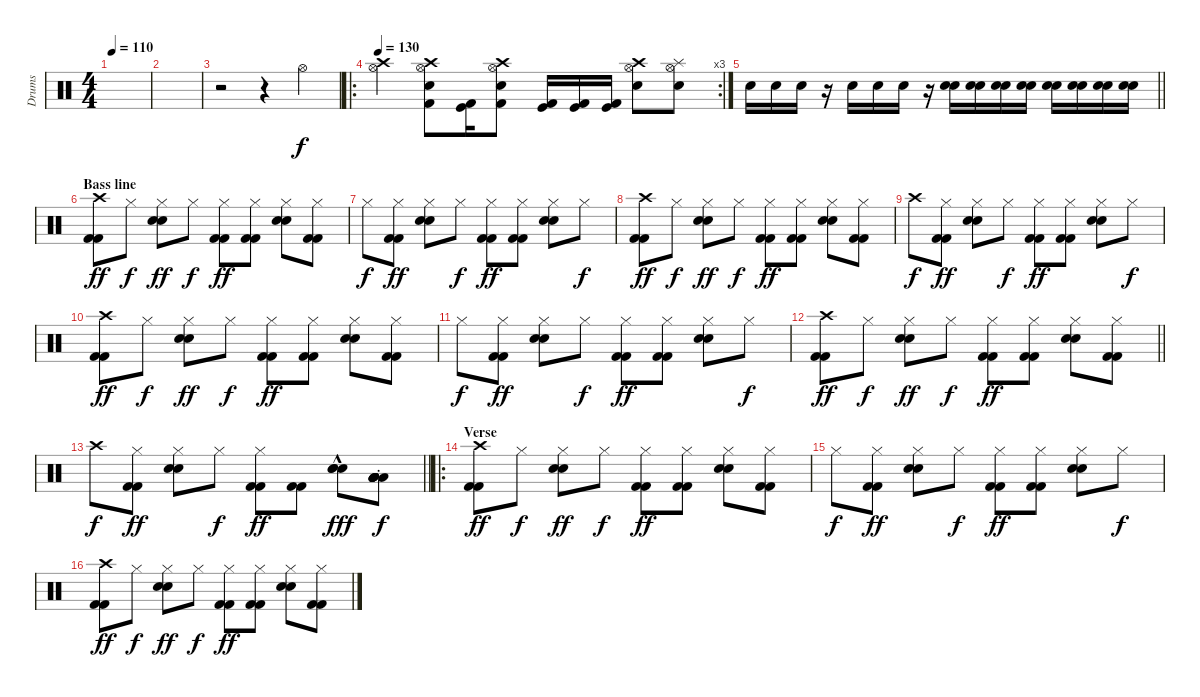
\track ("Drums" "Drums") {instrument percussion}
\staff {score}
\articulation defaults
\ts (4 4)
\tempo 110
\clef neutral
\ks c
|
|
r.2 r.4 "Hi-Hat (open)".4 |
\ro
\rc 3
\tempo 130
("Hi-Hat (open)" "Crash high (hit)").4 ("Crash high (hit)" "Hi-Hat (open)" "Kick (hit) 2" "Electric Snare (hit)").8 ("Kick (hit)" "Kick (hit) 2").16 ("Crash high (hit)" "Hi-Hat (open)" "Kick (hit) 2" "Electric Snare (hit)").8 ("Kick (hit)" "Kick (hit) 2").16 ("Kick (hit)" "Kick (hit) 2").16 ("Kick (hit)" "Kick (hit) 2").16 ("Crash high (hit)" "Hi-Hat (open)" "Electric Snare (hit)").8 ("Splash (hit)" "Hi-Hat (open)" "Snare (hit) 2").8 |
\barLineRight lightlight "Electric Snare (hit)".16 "Electric Snare (hit)".16 "Electric Snare (hit)".16
r.16 "Electric Snare (hit)".16 "Electric Snare (hit)".16 "Electric Snare (hit)".16 r.16 ("Electric Snare (hit)" "Snare (hit) 2").16 ("Electric Snare (hit)" "Snare (hit) 2").16 ("Electric Snare (hit)" "Snare (hit) 2").16 ("Electric Snare (hit)" "Snare (hit) 2").16 ("Electric Snare (hit)" "Snare (hit) 2").16 ("Electric Snare (hit)" "Snare (hit) 2").16 ("Electric Snare (hit)" "Snare (hit) 2").16 ("Electric Snare (hit)" "Snare (hit) 2").16 |
\section ("" "Bass line")
("Kick (hit) 2" "Kick (hit) 2" "Crash high (hit)").8{dy ff} "Hi-Hat (closed)".8{dy f} ("Electric Snare (hit)" "Electric Snare (hit)" "Hi-Hat (closed)").8{dy ff} "Hi-Hat (closed)".8{dy f} ("Kick (hit) 2" "Kick (hit) 2" "Hi-Hat (closed)").8{dy ff} ("Kick (hit) 2" "Kick (hit) 2" "Hi-Hat (closed)").8 ("Electric Snare (hit)" "Electric Snare (hit)" "Hi-Hat (closed)").8 ("Kick (hit) 2" "Kick (hit) 2" "Hi-Hat (closed)").8 |
"Hi-Hat (closed)".8{dy f} ("Kick (hit) 2" "Kick (hit) 2" "Hi-Hat (closed)").8{dy ff} ("Electric Snare (hit)" "Electric Snare (hit)" "Hi-Hat (closed)").8 "Hi-Hat (closed)".8{dy f} ("Kick (hit) 2" "Kick (hit) 2" "Hi-Hat (closed)").8{dy ff} ("Kick (hit) 2" "Kick (hit) 2" "Hi-Hat (closed)").8 ("Electric Snare (hit)" "Electric Snare (hit)" "Hi-Hat (closed)").8 "Hi-Hat (closed)".8{dy f} |
("Kick (hit) 2" "Kick (hit) 2" "Crash high (hit)").8{dy ff} "Hi-Hat (closed)".8{dy f} ("Electric Snare (hit)" "Electric Snare (hit)" "Hi-Hat (closed)").8{dy ff} "Hi-Hat (closed)".8{dy f} ("Kick (hit) 2" "Kick (hit) 2" "Hi-Hat (closed)").8{dy ff} ("Kick (hit) 2" "Kick (hit) 2" "Hi-Hat (closed)").8 ("Electric Snare (hit)" "Electric Snare (hit)" "Hi-Hat (closed)").8 ("Kick (hit) 2" "Kick (hit) 2" "Hi-Hat (closed)").8 |
"Crash high (hit)".8{dy f} ("Kick (hit) 2" "Kick (hit) 2" "Hi-Hat (closed)").8{dy ff} ("Electric Snare (hit)" "Electric Snare (hit)" "Hi-Hat (closed)").8 "Hi-Hat (closed)".8{dy f} ("Kick (hit) 2" "Kick (hit) 2" "Hi-Hat (closed)").8{dy ff} ("Kick (hit) 2" "Kick (hit) 2" "Hi-Hat (closed)").8 ("Electric Snare (hit)" "Electric Snare (hit)" "Hi-Hat (closed)").8 "Hi-Hat (closed)".8{dy f} |
("Kick (hit) 2" "Kick (hit) 2" "Crash high (hit)").8{dy ff} "Hi-Hat (closed)".8{dy f} ("Electric Snare (hit)" "Electric Snare (hit)" "Hi-Hat (closed)").8{dy ff} "Hi-Hat (closed)".8{dy f} ("Kick (hit) 2" "Kick (hit) 2" "Hi-Hat (closed)").8{dy ff} ("Kick (hit) 2" "Kick (hit) 2" "Hi-Hat (closed)").8 ("Electric Snare (hit)" "Electric Snare (hit)" "Hi-Hat (closed)").8 ("Kick (hit) 2" "Kick (hit) 2" "Hi-Hat (closed)").8 |
"Hi-Hat (closed)".8{dy f} ("Kick (hit) 2" "Kick (hit) 2" "Hi-Hat (closed)").8{dy ff} ("Electric Snare (hit)" "Electric Snare (hit)" "Hi-Hat (closed)").8 "Hi-Hat (closed)".8{dy f} ("Kick (hit) 2" "Kick (hit) 2" "Hi-Hat (closed)").8{dy ff} ("Kick (hit) 2" "Kick (hit) 2" "Hi-Hat (closed)").8 ("Electric Snare (hit)" "Electric Snare (hit)" "Hi-Hat (closed)").8 "Hi-Hat (closed)".8{dy f} |
\barLineRight lightlight
("Kick (hit) 2" "Kick (hit) 2" "Crash high (hit)").8{dy ff} "Hi-Hat (closed)".8{dy f} ("Electric Snare (hit)" "Electric Snare (hit)" "Hi-Hat (closed)").8{dy ff} "Hi-Hat (closed)".8{dy f} ("Kick (hit) 2" "Kick (hit) 2" "Hi-Hat (closed)").8{dy ff} ("Kick (hit) 2" "Kick (hit) 2" "Hi-Hat (closed)").8 ("Electric Snare (hit)" "Electric Snare (hit)" "Hi-Hat (closed)").8 ("Kick (hit) 2" "Kick (hit) 2" "Hi-Hat (closed)").8 |
\section ("" "")
\barLineRight lightlight "Crash high (hit)".8{dy f}
("Kick (hit) 2" "Kick (hit) 2" "Hi-Hat (closed)").8{dy ff} ("Electric Snare (hit)" "Electric Snare (hit)" "Hi-Hat (closed)").8 "Hi-Hat (closed)".8{dy f} ("Kick (hit) 2" "Kick (hit) 2" "Hi-Hat (closed)").8{dy ff} ("Kick (hit) 2" "Kick (hit) 2").8 ("Snare (hit) 2" "Snare (hit) 2"{hac} "Snare (hit) 2").8{dy fff} ("Low Tom (hit)" "Low Tom (hit)"{st} "Low Tom (hit)" "Low Tom (hit)" "Low Tom (hit)" "Low Tom (hit)").8{dy f} |
\ro
\section ("" "Verse")
("Kick (hit) 2" "Kick (hit) 2" "Crash high (hit)").8{dy ff} "Hi-Hat (closed)".8{dy f} ("Electric Snare (hit)" "Electric Snare (hit)" "Hi-Hat (closed)").8{dy ff} "Hi-Hat (closed)".8{dy f} ("Kick (hit) 2" "Kick (hit) 2" "Hi-Hat (closed)").8{dy ff} ("Kick (hit) 2" "Kick (hit) 2" "Hi-Hat (closed)").8 ("Electric Snare (hit)" "Electric Snare (hit)" "Hi-Hat (closed)").8 ("Kick (hit) 2" "Kick (hit) 2" "Hi-Hat (closed)").8 |
"Hi-Hat (closed)".8{dy f} ("Kick (hit) 2" "Kick (hit) 2" "Hi-Hat (closed)").8{dy ff} ("Electric Snare (hit)" "Electric Snare (hit)" "Hi-Hat (closed)").8 "Hi-Hat (closed)".8{dy f} ("Kick (hit) 2" "Kick (hit) 2" "Hi-Hat (closed)").8{dy ff} ("Kick (hit) 2" "Kick (hit) 2" "Hi-Hat (closed)").8 ("Electric Snare (hit)" "Electric Snare (hit)" "Hi-Hat (closed)").8 "Hi-Hat (closed)".8{dy f} |
("Kick (hit) 2" "Kick (hit) 2" "Crash high (hit)").8{dy ff} "Hi-Hat (closed)".8{dy f} ("Electric Snare (hit)" "Electric Snare (hit)" "Hi-Hat (closed)").8{dy ff} "Hi-Hat (closed)".8{dy f} ("Kick (hit) 2" "Kick (hit) 2" "Hi-Hat (closed)").8{dy ff} ("Kick (hit) 2" "Kick (hit) 2" "Hi-Hat (closed)").8 ("Electric Snare (hit)" "Electric Snare (hit)" "Hi-Hat (closed)").8 ("Kick (hit) 2" "Kick (hit) 2" "Hi-Hat (closed)").8
